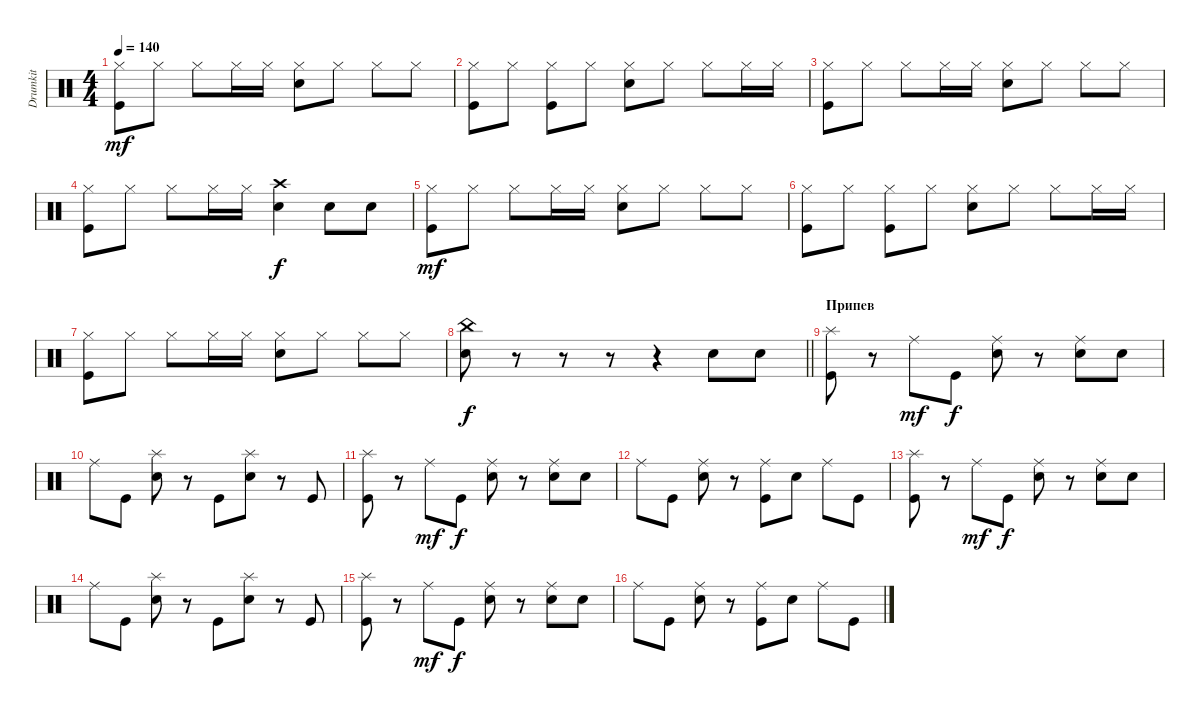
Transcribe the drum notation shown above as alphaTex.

\track ("Drumkit" "Drumkit") {instrument percussion}
\staff {score}
\articulation defaults
\ts (4 4)
\tempo 140
\clef neutral
\ks c
("Hi-Hat (closed)" "Kick (hit)").8{dy mf} "Hi-Hat (closed)".8 "Hi-Hat (closed)".8 "Hi-Hat (closed)".16 "Hi-Hat (closed)".16 ("Hi-Hat (closed)" "Snare (hit) 2").8 "Hi-Hat (closed)".8 "Hi-Hat (closed)".8 "Hi-Hat (closed)".8 |
("Hi-Hat (closed)" "Kick (hit)").8 "Hi-Hat (closed)".8 ("Hi-Hat (closed)" "Kick (hit)").8 "Hi-Hat (closed)".8 ("Hi-Hat (closed)" "Snare (hit) 2").8 "Hi-Hat (closed)".8 "Hi-Hat (closed)".8 "Hi-Hat (closed)".16 "Hi-Hat (closed)".16 |
("Hi-Hat (closed)" "Kick (hit)").8 "Hi-Hat (closed)".8 "Hi-Hat (closed)".8 "Hi-Hat (closed)".16 "Hi-Hat (closed)".16 ("Hi-Hat (closed)" "Snare (hit) 2").8 "Hi-Hat (closed)".8 "Hi-Hat (closed)".8 "Hi-Hat (closed)".8 |
("Hi-Hat (closed)" "Kick (hit)").8 "Hi-Hat (closed)".8 "Hi-Hat (closed)".8 "Hi-Hat (closed)".16 "Hi-Hat (closed)".16 ("Crash high (hit)" "Snare (hit) 2").4{dy f} "Snare (hit) 2".8 "Snare (hit) 2".8 |
("Hi-Hat (closed)" "Kick (hit)").8{dy mf} "Hi-Hat (closed)".8 "Hi-Hat (closed)".8 "Hi-Hat (closed)".16 "Hi-Hat (closed)".16 ("Hi-Hat (closed)" "Snare (hit) 2").8 "Hi-Hat (closed)".8 "Hi-Hat (closed)".8 "Hi-Hat (closed)".8 |
("Hi-Hat (closed)" "Kick (hit)").8 "Hi-Hat (closed)".8 ("Hi-Hat (closed)" "Kick (hit)").8 "Hi-Hat (closed)".8 ("Hi-Hat (closed)" "Snare (hit) 2").8 "Hi-Hat (closed)".8 "Hi-Hat (closed)".8 "Hi-Hat (closed)".16 "Hi-Hat (closed)".16 |
("Hi-Hat (closed)" "Kick (hit)").8 "Hi-Hat (closed)".8 "Hi-Hat (closed)".8 "Hi-Hat (closed)".16 "Hi-Hat (closed)".16 ("Hi-Hat (closed)" "Snare (hit) 2").8 "Hi-Hat (closed)".8 "Hi-Hat (closed)".8 "Hi-Hat (closed)".8 |
\barLineRight lightlight
("China (hit)" "Snare (hit) 2").8{dy f} r.8 r.8 r.8 r.4 "Snare (hit) 2".8 "Snare (hit) 2".8 |
\section ("" "Припев")
("Kick (hit)" "Splash (hit)").8 r.8 "Ride (middle)".8{dy mf} "Kick (hit)".8{dy f} ("Snare (hit) 2" "Ride (middle)").8 r.8 ("Snare (hit) 2" "Ride (middle)").8 "Snare (hit) 2".8 |
"Ride (middle)".8 "Kick (hit)".8 ("Snare (hit) 2" "Splash (hit)").8 r.8 "Kick (hit)".8 ("Snare (hit) 2" "Splash (hit)").8 r.8 "Kick (hit)".8 |
("Kick (hit)" "Splash (hit)").8 r.8 "Ride (middle)".8{dy mf} "Kick (hit)".8{dy f} ("Snare (hit) 2" "Ride (middle)").8 r.8 ("Snare (hit) 2" "Ride (middle)").8 "Snare (hit) 2".8 |
"Ride (middle)".8 "Kick (hit)".8 ("Snare (hit) 2" "Ride (middle)").8 r.8 ("Kick (hit)" "Ride (middle)").8 "Snare (hit) 2".8 "Ride (middle)".8 "Kick (hit)".8 |
("Kick (hit)" "Splash (hit)").8 r.8 "Ride (middle)".8{dy mf} "Kick (hit)".8{dy f} ("Snare (hit) 2" "Ride (middle)").8 r.8 ("Snare (hit) 2" "Ride (middle)").8 "Snare (hit) 2".8 |
"Ride (middle)".8 "Kick (hit)".8 ("Snare (hit) 2" "Splash (hit)").8 r.8 "Kick (hit)".8 ("Snare (hit) 2" "Splash (hit)").8 r.8 "Kick (hit)".8 |
("Kick (hit)" "Splash (hit)").8 r.8 "Ride (middle)".8{dy mf} "Kick (hit)".8{dy f} ("Snare (hit) 2" "Ride (middle)").8 r.8 ("Snare (hit) 2" "Ride (middle)").8 "Snare (hit) 2".8 |
"Ride (middle)".8 "Kick (hit)".8 ("Snare (hit) 2" "Ride (middle)").8 r.8 ("Kick (hit)" "Ride (middle)").8 "Snare (hit) 2".8 "Ride (middle)".8 "Kick (hit)".8
